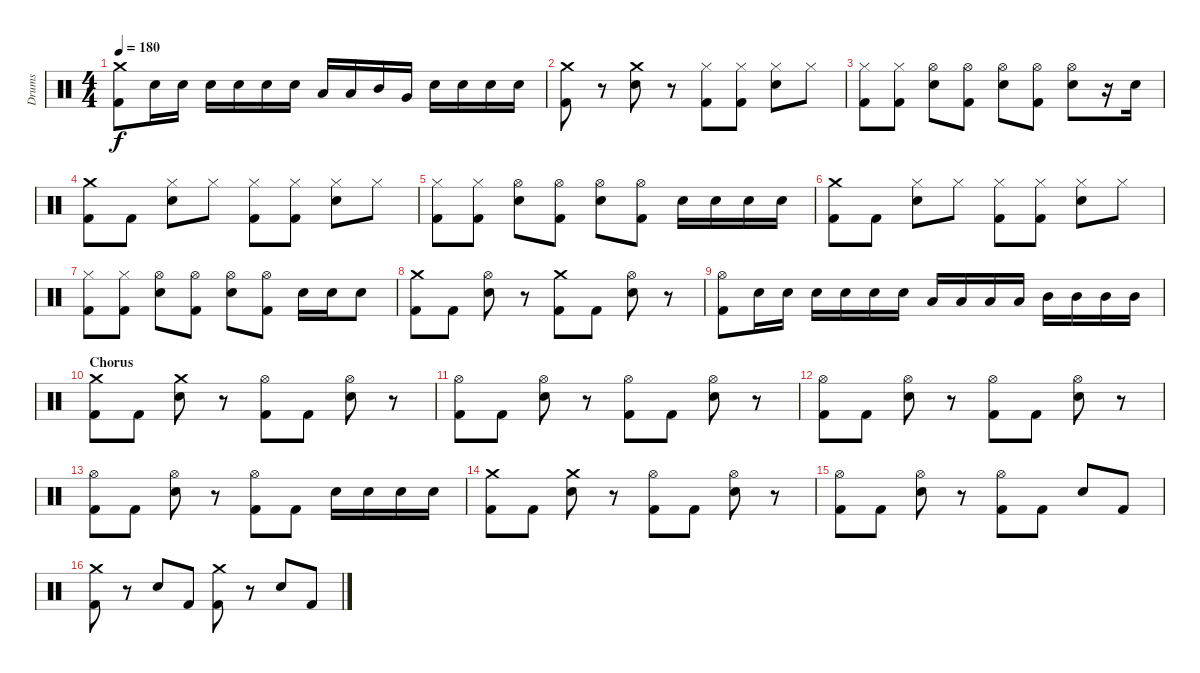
\track ("Drums" "Drums") {instrument percussion}
\staff {score}
\articulation defaults
\ts (4 4)
\tempo 180
\clef neutral
\ks c
("Crash medium (hit)" "Kick (hit) 2").8{dy f} "Electric Snare (hit)".16 "Electric Snare (hit)".16 "Electric Snare (hit)".16 "Electric Snare (hit)".16 "Electric Snare (hit)".16 "Electric Snare (hit)".16 "Low Tom (hit)".16 "Low Tom (hit)".16 "Mid Tom (hit)".16 "Very Low Tom (hit)".16 "Electric Snare (hit)".16 "Electric Snare (hit)".16 "Electric Snare (hit)".16 "Electric Snare (hit)".16 |
("Crash medium (hit)" "Kick (hit) 2").8 r.8 ("Crash medium (hit)" "Electric Snare (hit)").8 r.8 ("Hi-Hat (closed)" "Kick (hit) 2").8 ("Hi-Hat (closed)" "Kick (hit) 2").8 ("Hi-Hat (closed)" "Electric Snare (hit)").8 "Hi-Hat (closed)".8 |
("Hi-Hat (closed)" "Kick (hit) 2").8 ("Hi-Hat (closed)" "Kick (hit) 2").8 ("Hi-Hat (open)" "Electric Snare (hit)").8 ("Hi-Hat (open)" "Kick (hit) 2").8 ("Hi-Hat (open)" "Electric Snare (hit)").8 ("Hi-Hat (open)" "Kick (hit) 2").8 ("Hi-Hat (open)" "Electric Snare (hit)").8 r.16 "Electric Snare (hit)".16 |
("Crash medium (hit)" "Kick (hit) 2").8 "Kick (hit) 2".8 ("Hi-Hat (closed)" "Electric Snare (hit)").8 "Hi-Hat (closed)".8 ("Hi-Hat (closed)" "Kick (hit) 2").8 ("Hi-Hat (closed)" "Kick (hit) 2").8 ("Hi-Hat (closed)" "Electric Snare (hit)").8 "Hi-Hat (closed)".8 |
("Hi-Hat (closed)" "Kick (hit) 2").8 ("Hi-Hat (closed)" "Kick (hit) 2").8 ("Hi-Hat (open)" "Electric Snare (hit)").8 ("Hi-Hat (open)" "Kick (hit) 2").8 ("Hi-Hat (open)" "Electric Snare (hit)").8 ("Hi-Hat (open)" "Kick (hit) 2").8 "Electric Snare (hit)".16 "Electric Snare (hit)".16 "Electric Snare (hit)".16 "Electric Snare (hit)".16 |
("Crash medium (hit)" "Kick (hit) 2").8 "Kick (hit) 2".8 ("Hi-Hat (closed)" "Electric Snare (hit)").8 "Hi-Hat (closed)".8 ("Hi-Hat (closed)" "Kick (hit) 2").8 ("Hi-Hat (closed)" "Kick (hit) 2").8 ("Hi-Hat (closed)" "Electric Snare (hit)").8 "Hi-Hat (closed)".8 |
("Hi-Hat (closed)" "Kick (hit) 2").8 ("Hi-Hat (closed)" "Kick (hit) 2").8 ("Hi-Hat (open)" "Electric Snare (hit)").8 ("Hi-Hat (open)" "Kick (hit) 2").8 ("Hi-Hat (open)" "Electric Snare (hit)").8 ("Hi-Hat (open)" "Kick (hit) 2").8 "Electric Snare (hit)".16 "Electric Snare (hit)".16 "Electric Snare (hit)".8 |
("Crash medium (hit)" "Kick (hit) 2").8 "Kick (hit) 2".8 ("Hi-Hat (open)" "Electric Snare (hit)").8 r.8 ("Crash medium (hit)" "Kick (hit) 2").8 "Kick (hit) 2".8 ("Hi-Hat (open)" "Electric Snare (hit)").8 r.8 |
("Hi-Hat (open)" "Kick (hit) 2").8 "Electric Snare (hit)".16 "Electric Snare (hit)".16 "Electric Snare (hit)".16 "Electric Snare (hit)".16 "Electric Snare (hit)".16 "Electric Snare (hit)".16 "Low Tom (hit)".16 "Low Tom (hit)".16 "Low Tom (hit)".16 "Low Tom (hit)".16 "Mid Tom (hit)".16 "Mid Tom (hit)".16 "Mid Tom (hit)".16 "Mid Tom (hit)".16 |
\section ("" "Chorus")
("Crash medium (hit)" "Kick (hit) 2").8 "Kick (hit) 2".8 ("Crash medium (hit)" "Electric Snare (hit)").8 r.8 ("Hi-Hat (open)" "Kick (hit) 2").8 "Kick (hit) 2".8 ("Hi-Hat (open)" "Electric Snare (hit)").8 r.8 |
("Hi-Hat (open)" "Kick (hit) 2").8 "Kick (hit) 2".8 ("Hi-Hat (open)" "Electric Snare (hit)").8 r.8 ("Hi-Hat (open)" "Kick (hit) 2").8 "Kick (hit) 2".8 ("Hi-Hat (open)" "Electric Snare (hit)").8 r.8 |
("Hi-Hat (open)" "Kick (hit) 2").8 "Kick (hit) 2".8 ("Hi-Hat (open)" "Electric Snare (hit)").8 r.8 ("Hi-Hat (open)" "Kick (hit) 2").8 "Kick (hit) 2".8 ("Hi-Hat (open)" "Electric Snare (hit)").8 r.8 |
("Hi-Hat (open)" "Kick (hit) 2").8 "Kick (hit) 2".8 ("Hi-Hat (open)" "Electric Snare (hit)").8 r.8 ("Hi-Hat (open)" "Kick (hit) 2").8 "Kick (hit) 2".8 "Electric Snare (hit)".16 "Electric Snare (hit)".16 "Electric Snare (hit)".16 "Electric Snare (hit)".16 |
("Crash medium (hit)" "Kick (hit) 2").8 "Kick (hit) 2".8 ("Crash medium (hit)" "Electric Snare (hit)").8 r.8 ("Hi-Hat (open)" "Kick (hit) 2").8 "Kick (hit) 2".8 ("Hi-Hat (open)" "Electric Snare (hit)").8 r.8 |
("Hi-Hat (open)" "Kick (hit) 2").8 "Kick (hit) 2".8 ("Hi-Hat (open)" "Electric Snare (hit)").8 r.8 ("Hi-Hat (open)" "Kick (hit) 2").8 "Kick (hit) 2".8 "Electric Snare (hit)".8 "Kick (hit) 2".8 |
("Crash medium (hit)" "Kick (hit) 2").8 r.8 "Electric Snare (hit)".8 "Kick (hit) 2".8 ("Crash medium (hit)" "Kick (hit) 2").8 r.8 "Electric Snare (hit)".8 "Kick (hit) 2".8
